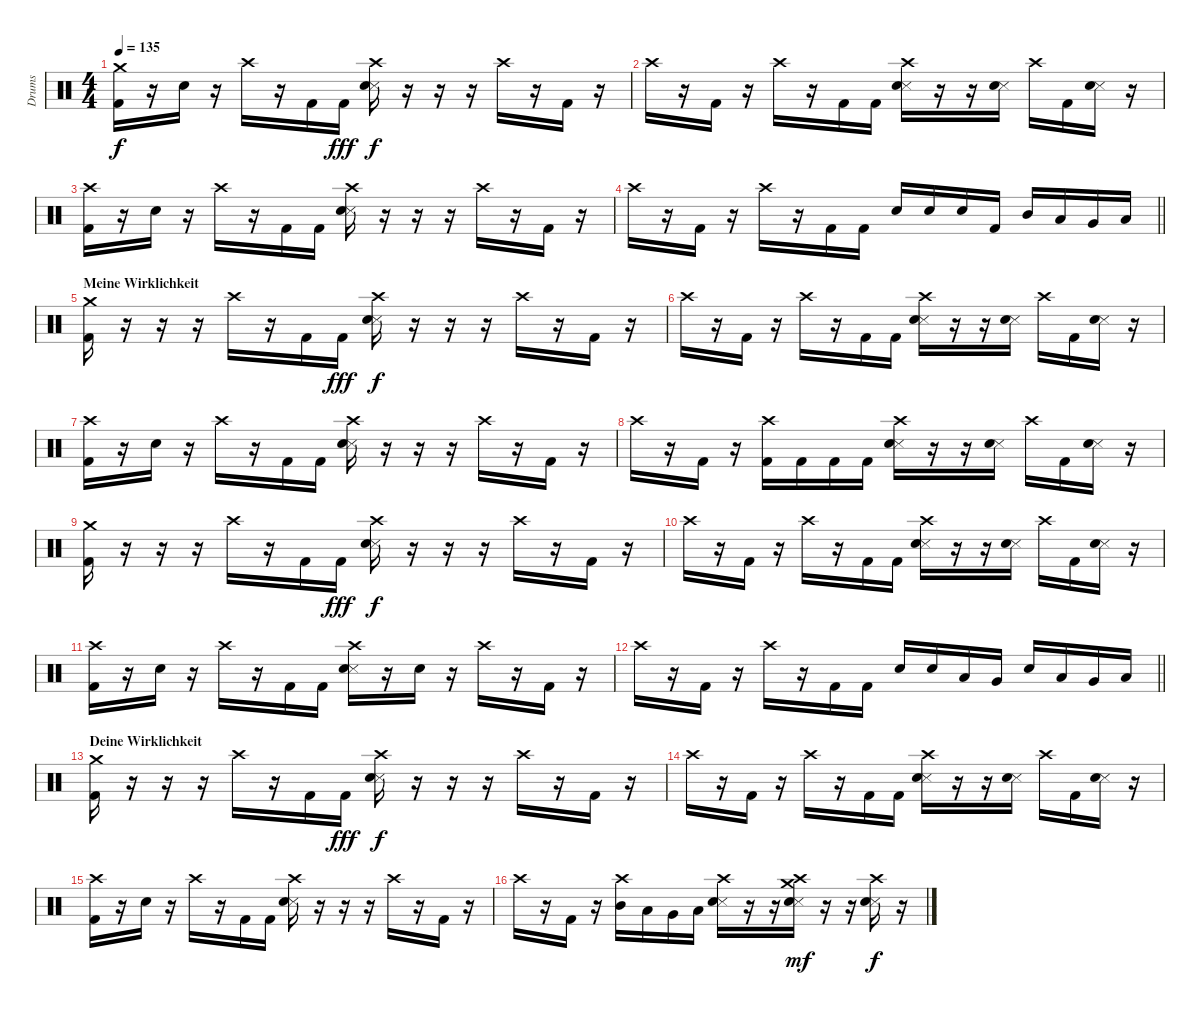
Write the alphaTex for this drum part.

\track ("Drums" "Drums") {instrument percussion}
\staff {score}
\articulation defaults
\ts (4 4)
\tempo 135
\clef neutral
\ks c
("Crash medium (hit)" "Kick (hit) 2").16{dy f} r.16 "Electric Snare (hit)".16 r.16 "Crash high (hit)".16 r.16 "Kick (hit) 2".16 "Kick (hit) 2".16{dy fff} ("Crash high (hit)" "Snare (side stick) 3" "Electric Snare (hit)").16{dy f} r.16 r.16 r.16 "Crash high (hit)".16 r.16 "Kick (hit) 2".16 r.16 |
"Crash high (hit)".16 r.16 "Kick (hit) 2".16 r.16 "Crash high (hit)".16 r.16 "Kick (hit) 2".16 "Kick (hit) 2".16 ("Crash high (hit)" "Snare (side stick) 3" "Electric Snare (hit)").16 r.16 r.16 ("Snare (side stick) 3" "Electric Snare (hit)").16 "Crash high (hit)".16 "Kick (hit) 2".16 ("Snare (side stick) 3" "Electric Snare (hit)").16 r.16 |
("Kick (hit) 2" "Crash high (hit)").16 r.16 "Electric Snare (hit)".16 r.16 "Crash high (hit)".16 r.16 "Kick (hit) 2".16 "Kick (hit) 2".16 ("Snare (side stick) 3" "Electric Snare (hit)" "Crash high (hit)").16 r.16 r.16 r.16 "Crash high (hit)".16 r.16 "Kick (hit) 2".16 r.16 |
\barLineRight lightlight "Crash high (hit)".16
r.16 "Kick (hit) 2".16 r.16 "Crash high (hit)".16 r.16 "Kick (hit) 2".16 "Kick (hit) 2".16 "Electric Snare (hit)".16 "Electric Snare (hit)".16 "Electric Snare (hit)".16 "Kick (hit) 2".16 "Mid Tom (hit)".16 "Low Tom (hit)".16 "Very Low Tom (hit)".16 "Low Floor Tom (hit)".16 |
\section ("" "Meine Wirklichkeit")
("Crash medium (hit)" "Kick (hit) 2").16 r.16 r.16 r.16 "Crash high (hit)".16 r.16 "Kick (hit) 2".16 "Kick (hit) 2".16{dy fff} ("Crash high (hit)" "Snare (side stick) 3" "Electric Snare (hit)").16{dy f} r.16 r.16 r.16 "Crash high (hit)".16 r.16 "Kick (hit) 2".16 r.16 |
"Crash high (hit)".16 r.16 "Kick (hit) 2".16 r.16 "Crash high (hit)".16 r.16 "Kick (hit) 2".16 "Kick (hit) 2".16 ("Crash high (hit)" "Snare (side stick) 3" "Electric Snare (hit)").16 r.16 r.16 ("Snare (side stick) 3" "Electric Snare (hit)").16 "Crash high (hit)".16 "Kick (hit) 2".16 ("Snare (side stick) 3" "Electric Snare (hit)").16 r.16 |
("Kick (hit) 2" "Crash high (hit)").16 r.16 "Electric Snare (hit)".16 r.16 "Crash high (hit)".16 r.16 "Kick (hit) 2".16 "Kick (hit) 2".16 ("Snare (side stick) 3" "Electric Snare (hit)" "Crash high (hit)").16 r.16 r.16 r.16 "Crash high (hit)".16 r.16 "Kick (hit) 2".16 r.16 |
"Crash high (hit)".16 r.16 "Kick (hit) 2".16 r.16 ("Crash high (hit)" "Kick (hit) 2").16 "Kick (hit) 2".16 "Kick (hit) 2".16 "Kick (hit) 2".16 ("Crash high (hit)" "Snare (side stick) 3" "Electric Snare (hit)").16 r.16 r.16 ("Snare (side stick) 3" "Electric Snare (hit)").16 "Crash high (hit)".16 "Kick (hit) 2".16 ("Snare (side stick) 3" "Electric Snare (hit)").16 r.16 |
("Crash medium (hit)" "Kick (hit) 2").16 r.16 r.16 r.16 "Crash high (hit)".16 r.16 "Kick (hit) 2".16 "Kick (hit) 2".16{dy fff} ("Crash high (hit)" "Snare (side stick) 3" "Electric Snare (hit)").16{dy f} r.16 r.16 r.16 "Crash high (hit)".16 r.16 "Kick (hit) 2".16 r.16 |
"Crash high (hit)".16 r.16 "Kick (hit) 2".16 r.16 "Crash high (hit)".16 r.16 "Kick (hit) 2".16 "Kick (hit) 2".16 ("Crash high (hit)" "Snare (side stick) 3" "Electric Snare (hit)").16 r.16 r.16 ("Snare (side stick) 3" "Electric Snare (hit)").16 "Crash high (hit)".16 "Kick (hit) 2".16 ("Snare (side stick) 3" "Electric Snare (hit)").16 r.16 |
("Kick (hit) 2" "Crash high (hit)").16 r.16 "Electric Snare (hit)".16 r.16 "Crash high (hit)".16 r.16 "Kick (hit) 2".16 "Kick (hit) 2".16 ("Snare (side stick) 3" "Electric Snare (hit)" "Crash high (hit)").16 r.16 "Electric Snare (hit)".16 r.16 "Crash high (hit)".16 r.16 "Kick (hit) 2".16 r.16 |
\barLineRight lightlight "Crash high (hit)".16
r.16 "Kick (hit) 2".16 r.16 "Crash high (hit)".16 r.16 "Kick (hit) 2".16 "Kick (hit) 2".16 "Electric Snare (hit)".16 "Electric Snare (hit)".16 "Low Tom (hit)".16 "Very Low Tom (hit)".16 "Electric Snare (hit)".16 "Low Tom (hit)".16 "Very Low Tom (hit)".16 "Low Floor Tom (hit)".16 |
\section ("" "Deine Wirklichkeit")
("Crash medium (hit)" "Kick (hit) 2").16 r.16 r.16 r.16 "Crash high (hit)".16 r.16 "Kick (hit) 2".16 "Kick (hit) 2".16{dy fff} ("Crash high (hit)" "Snare (side stick) 3" "Electric Snare (hit)").16{dy f} r.16 r.16 r.16 "Crash high (hit)".16 r.16 "Kick (hit) 2".16 r.16 |
"Crash high (hit)".16 r.16 "Kick (hit) 2".16 r.16 "Crash high (hit)".16 r.16 "Kick (hit) 2".16 "Kick (hit) 2".16 ("Crash high (hit)" "Snare (side stick) 3" "Electric Snare (hit)").16 r.16 r.16 ("Snare (side stick) 3" "Electric Snare (hit)").16 "Crash high (hit)".16 "Kick (hit) 2".16 ("Snare (side stick) 3" "Electric Snare (hit)").16 r.16 |
("Kick (hit) 2" "Crash high (hit)").16 r.16 "Electric Snare (hit)".16 r.16 "Crash high (hit)".16 r.16 "Kick (hit) 2".16 "Kick (hit) 2".16 ("Snare (side stick) 3" "Electric Snare (hit)" "Crash high (hit)").16 r.16 r.16 r.16 "Crash high (hit)".16 r.16 "Kick (hit) 2".16 r.16 |
"Crash high (hit)".16 r.16 "Kick (hit) 2".16 r.16 ("Crash high (hit)" "Mid Tom (hit)").16 "Low Tom (hit)".16 "Very Low Tom (hit)".16 "Low Floor Tom (hit)".16 ("Crash high (hit)" "Snare (side stick) 3" "Electric Snare (hit)").16{balance 12} r.16 r.16 ("Crash high (hit)" "Snare (side stick) 3" "Electric Snare (hit)" "Crash medium (hit)").16{dy mf balance 4} r.16 r.16 ("Crash high (hit)" "Snare (side stick) 3" "Electric Snare (hit)").16{dy f balance 12} r.16
